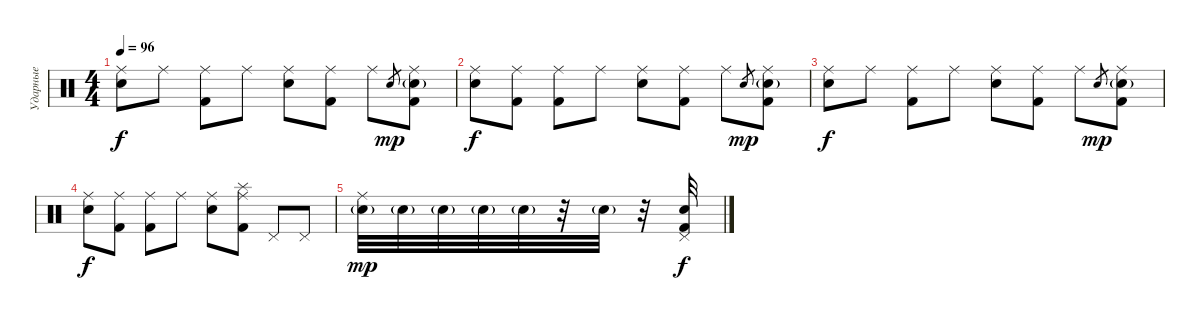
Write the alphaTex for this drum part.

\track ("Ударные" "Ударные") {instrument percussion}
\staff {score}
\articulation defaults
\ts (4 4)
\tempo 96
\clef neutral
\ks c
("Ride (middle)" "Electric Snare (hit)").8{dy f} "Ride (middle)".8 ("Ride (middle)" "Kick (hit) 2").8 "Ride (middle)".8 ("Ride (middle)" "Snare (hit) 2").8 ("Ride (middle)" "Kick (hit) 2").8 "Ride (middle)".8 "Snare (hit) 2".8{gr dy mp} ("Ride (middle)" "Snare (hit) 2"{g} "Kick (hit) 2").8 |
("Ride (middle)" "Snare (hit) 2").8{dy f} ("Ride (middle)" "Kick (hit) 2").8 ("Ride (middle)" "Kick (hit) 2").8 "Ride (middle)".8 ("Ride (middle)" "Electric Snare (hit)").8 ("Ride (middle)" "Kick (hit) 2").8 "Ride (middle)".8 "Electric Snare (hit)".8{gr dy mp} ("Ride (middle)" "Electric Snare (hit)"{g} "Kick (hit) 2").8 |
("Ride (middle)" "Electric Snare (hit)").8{dy f} "Ride (middle)".8 ("Ride (middle)" "Kick (hit) 2").8 "Ride (middle)".8 ("Ride (middle)" "Snare (hit) 2").8 ("Ride (middle)" "Kick (hit) 2").8 "Ride (middle)".8 "Snare (hit) 2".8{gr dy mp} ("Ride (middle)" "Snare (hit) 2"{g} "Kick (hit) 2").8 |
("Ride (middle)" "Snare (hit) 2").8{dy f} ("Ride (middle)" "Kick (hit) 2").8 ("Ride (middle)" "Kick (hit) 2").8 "Ride (middle)".8 ("Ride (middle)" "Electric Snare (hit)").8 ("Ride (middle)" "Splash (hit)" "Kick (hit) 2").8 "Pedal Hi-Hat (hit)".8 "Pedal Hi-Hat (hit)".8 |
("Ride (middle)" "Snare (hit) 2"{g}).32{dy mp} "Electric Snare (hit)"{g}.32 "Snare (hit) 2"{g}.32 "Electric Snare (hit)"{g}.32 "Snare (hit) 2"{g}.32 r.32 "Electric Snare (hit)"{g}.32 r.32 ("Pedal Hi-Hat (hit)" "Electric Snare (hit)" "Kick (hit) 2").32{dy f}
